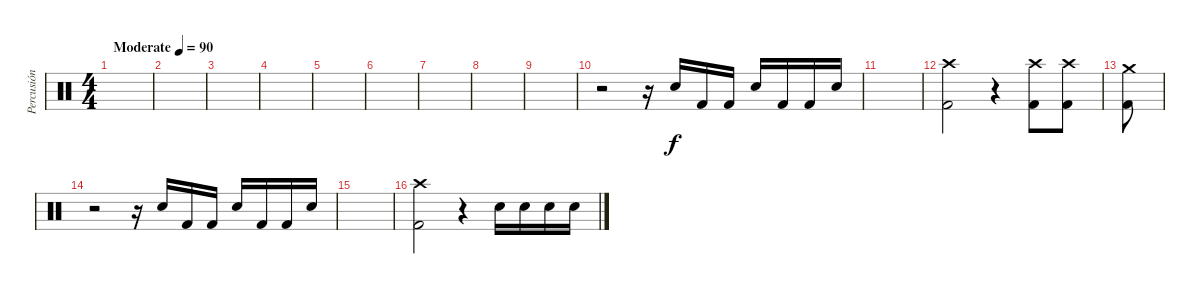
\track ("Percusión" "Percusión") {instrument percussion}
\staff {score}
\articulation defaults
\ts (4 4)
\tempo (90 "Moderate")
\clef neutral
\ks c
|
|
|
|
|
|
|
|
|
r.2 r.16 "Snare (hit) 2".16 "Kick (hit) 2".16 "Kick (hit) 2".16 "Snare (hit) 2".16 "Kick (hit) 2".16 "Kick (hit) 2".16 "Snare (hit) 2".16 |
|
("Crash high (hit)" "Kick (hit) 2").2 r.4 ("Crash high (hit)" "Kick (hit) 2").8 ("Crash high (hit)" "Kick (hit) 2").8 |
("Crash medium (hit)" "Kick (hit) 2").8 |
r.2 r.16 "Snare (hit) 2".16 "Kick (hit) 2".16 "Kick (hit) 2".16 "Snare (hit) 2".16 "Kick (hit) 2".16 "Kick (hit) 2".16 "Snare (hit) 2".16 |
|
("Crash high (hit)" "Kick (hit) 2").2 r.4 "Snare (hit) 2".16 "Snare (hit) 2".16 "Snare (hit) 2".16 "Snare (hit) 2".16
